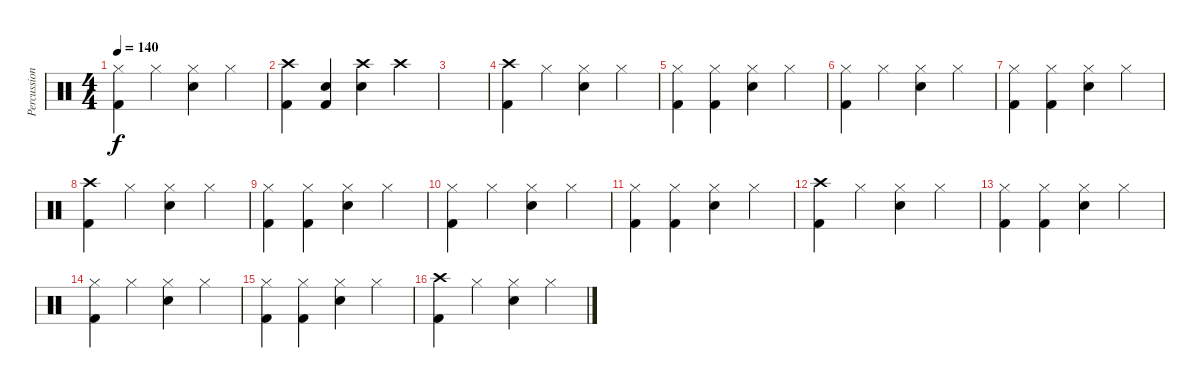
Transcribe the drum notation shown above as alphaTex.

\track ("Percussion" "Percussion") {instrument percussion}
\staff {score}
\articulation defaults
\ts (4 4)
\tempo 140
\clef neutral
\ks c
("Hi-Hat (closed)" "Kick (hit) 2").4{dy f} "Hi-Hat (closed)".4 ("Hi-Hat (closed)" "Electric Snare (hit)").4 "Hi-Hat (closed)".4 |
("Crash high (hit)" "Kick (hit) 2").4 ("Electric Snare (hit)" "Kick (hit) 2").4 ("Crash high (hit)" "Electric Snare (hit)").4 "Crash high (hit)".4 |
|
("Crash high (hit)" "Kick (hit) 2").4 "Hi-Hat (closed)".4 ("Hi-Hat (closed)" "Electric Snare (hit)").4 "Hi-Hat (closed)".4 |
("Hi-Hat (closed)" "Kick (hit) 2").4 ("Hi-Hat (closed)" "Kick (hit) 2").4 ("Hi-Hat (closed)" "Electric Snare (hit)").4 "Hi-Hat (closed)".4 |
("Hi-Hat (closed)" "Kick (hit) 2").4 "Hi-Hat (closed)".4 ("Hi-Hat (closed)" "Electric Snare (hit)").4 "Hi-Hat (closed)".4 |
("Hi-Hat (closed)" "Kick (hit) 2").4 ("Hi-Hat (closed)" "Kick (hit) 2").4 ("Hi-Hat (closed)" "Electric Snare (hit)").4 "Hi-Hat (closed)".4 |
("Crash high (hit)" "Kick (hit) 2").4 "Hi-Hat (closed)".4 ("Hi-Hat (closed)" "Electric Snare (hit)").4 "Hi-Hat (closed)".4 |
("Hi-Hat (closed)" "Kick (hit) 2").4 ("Hi-Hat (closed)" "Kick (hit) 2").4 ("Hi-Hat (closed)" "Electric Snare (hit)").4 "Hi-Hat (closed)".4 |
("Hi-Hat (closed)" "Kick (hit) 2").4 "Hi-Hat (closed)".4 ("Hi-Hat (closed)" "Electric Snare (hit)").4 "Hi-Hat (closed)".4 |
("Hi-Hat (closed)" "Kick (hit) 2").4 ("Hi-Hat (closed)" "Kick (hit) 2").4 ("Hi-Hat (closed)" "Electric Snare (hit)").4 "Hi-Hat (closed)".4 |
("Crash high (hit)" "Kick (hit) 2").4 "Hi-Hat (closed)".4 ("Hi-Hat (closed)" "Electric Snare (hit)").4 "Hi-Hat (closed)".4 |
("Hi-Hat (closed)" "Kick (hit) 2").4 ("Hi-Hat (closed)" "Kick (hit) 2").4 ("Hi-Hat (closed)" "Electric Snare (hit)").4 "Hi-Hat (closed)".4 |
("Hi-Hat (closed)" "Kick (hit) 2").4 "Hi-Hat (closed)".4 ("Hi-Hat (closed)" "Electric Snare (hit)").4 "Hi-Hat (closed)".4 |
("Hi-Hat (closed)" "Kick (hit) 2").4 ("Hi-Hat (closed)" "Kick (hit) 2").4 ("Hi-Hat (closed)" "Electric Snare (hit)").4 "Hi-Hat (closed)".4 |
("Crash high (hit)" "Kick (hit) 2").4 "Hi-Hat (closed)".4 ("Hi-Hat (closed)" "Electric Snare (hit)").4 "Hi-Hat (closed)".4
